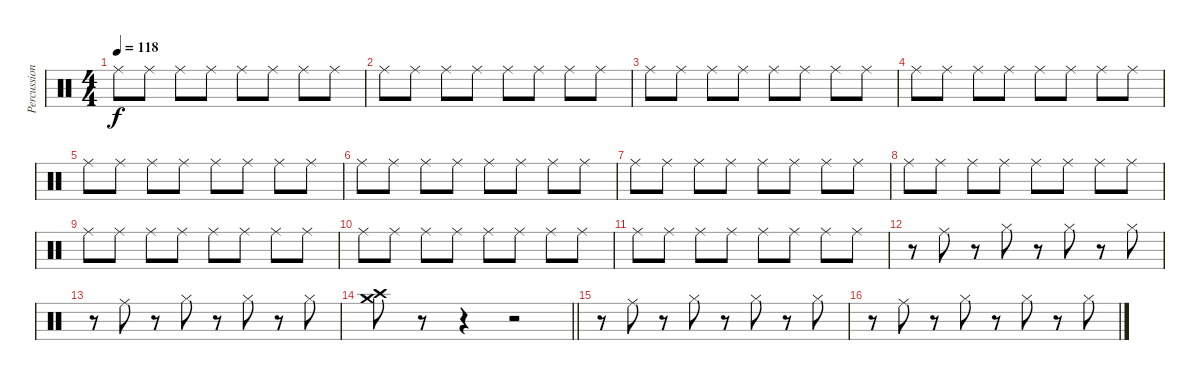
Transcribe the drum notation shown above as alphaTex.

\track ("Percussion" "Percussion") {instrument percussion}
\staff {score}
\articulation defaults
\ts (4 4)
\tempo 118
\clef neutral
\ks c "Ride (middle)".8{dy f} "Ride (middle)".8 "Ride (middle)".8 "Ride (middle)".8 "Ride (middle)".8 "Ride (middle)".8 "Ride (middle)".8 "Ride (middle)".8
|
"Ride (middle)".8 "Ride (middle)".8 "Ride (middle)".8 "Ride (middle)".8 "Ride (middle)".8 "Ride (middle)".8 "Ride (middle)".8 "Ride (middle)".8 |
"Ride (middle)".8 "Ride (middle)".8 "Ride (middle)".8 "Ride (middle)".8 "Ride (middle)".8 "Ride (middle)".8 "Ride (middle)".8 "Ride (middle)".8 |
"Ride (middle)".8 "Ride (middle)".8 "Ride (middle)".8 "Ride (middle)".8 "Ride (middle)".8 "Ride (middle)".8 "Ride (middle)".8 "Ride (middle)".8 |
"Ride (middle)".8 "Ride (middle)".8 "Ride (middle)".8 "Ride (middle)".8 "Ride (middle)".8 "Ride (middle)".8 "Ride (middle)".8 "Ride (middle)".8 |
"Ride (middle)".8 "Ride (middle)".8 "Ride (middle)".8 "Ride (middle)".8 "Ride (middle)".8 "Ride (middle)".8 "Ride (middle)".8 "Ride (middle)".8 |
"Ride (middle)".8 "Ride (middle)".8 "Ride (middle)".8 "Ride (middle)".8 "Ride (middle)".8 "Ride (middle)".8 "Ride (middle)".8 "Ride (middle)".8 |
"Ride (middle)".8 "Ride (middle)".8 "Ride (middle)".8 "Ride (middle)".8 "Ride (middle)".8 "Ride (middle)".8 "Ride (middle)".8 "Ride (middle)".8 |
"Ride (middle)".8 "Ride (middle)".8 "Ride (middle)".8 "Ride (middle)".8 "Ride (middle)".8 "Ride (middle)".8 "Ride (middle)".8 "Ride (middle)".8 |
"Ride (middle)".8 "Ride (middle)".8 "Ride (middle)".8 "Ride (middle)".8 "Ride (middle)".8 "Ride (middle)".8 "Ride (middle)".8 "Ride (middle)".8 |
"Ride (middle)".8 "Ride (middle)".8 "Ride (middle)".8 "Ride (middle)".8 "Ride (middle)".8 "Ride (middle)".8 "Ride (middle)".8 "Ride (middle)".8 |
r.8 "Ride (middle)".8 r.8 "Hi-Hat (closed)".8 r.8 "Hi-Hat (closed)".8 r.8 "Hi-Hat (closed)".8 |
r.8 "Ride (middle)".8 r.8 "Hi-Hat (closed)".8 r.8 "Hi-Hat (closed)".8 r.8 "Hi-Hat (closed)".8 |
\barLineRight lightlight
("Crash high (hit)" "Crash medium (hit)").8 r.8 r.4 r.2 |
r.8 "Ride (middle)".8 r.8 "Hi-Hat (closed)".8 r.8 "Hi-Hat (closed)".8 r.8 "Hi-Hat (closed)".8 |
r.8 "Ride (middle)".8 r.8 "Hi-Hat (closed)".8 r.8 "Hi-Hat (closed)".8 r.8 "Hi-Hat (closed)".8
